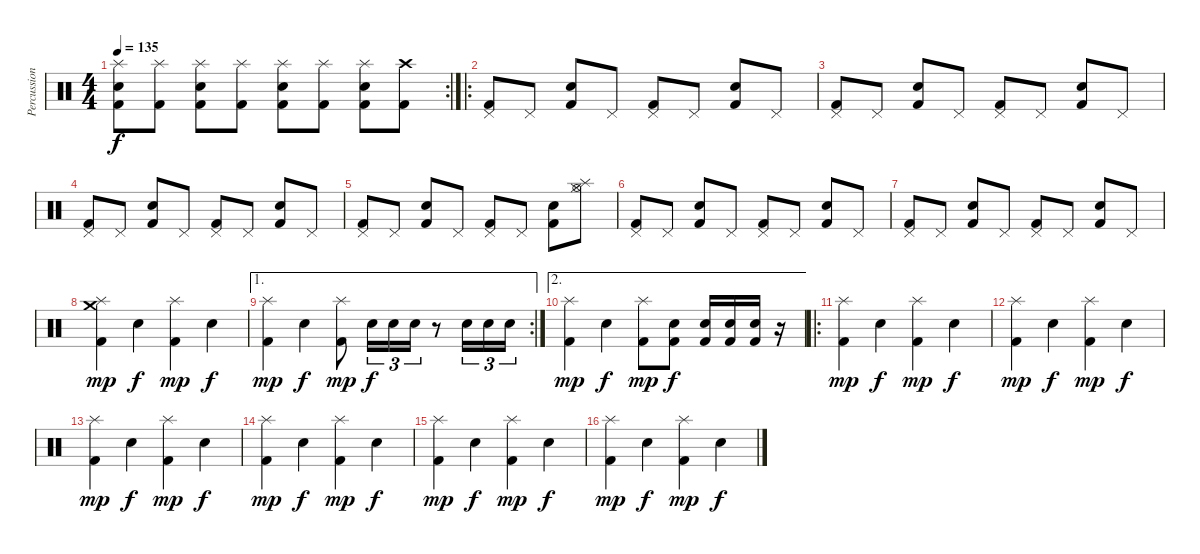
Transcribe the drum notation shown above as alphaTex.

\track ("Percussion" "Percussion") {instrument percussion}
\staff {score}
\articulation defaults
\rc 2
\ts (4 4)
\tempo 135
\clef neutral
\ks c
("Splash (hit)" "Snare (hit) 2" "Kick (hit) 2").8{dy f} ("Splash (hit)" "Kick (hit) 2").8 ("Splash (hit)" "Snare (hit) 2" "Kick (hit) 2").8 ("Splash (hit)" "Kick (hit) 2").8 ("Splash (hit)" "Snare (hit) 2" "Kick (hit) 2").8 ("Splash (hit)" "Kick (hit) 2").8 ("Splash (hit)" "Snare (hit) 2" "Kick (hit) 2").8 ("Crash high (hit)" "Kick (hit) 2").8 |
\ro
("Pedal Hi-Hat (hit)" "Kick (hit) 2").8 "Pedal Hi-Hat (hit)".8 ("Snare (hit) 2" "Kick (hit) 2").8 "Pedal Hi-Hat (hit)".8 ("Pedal Hi-Hat (hit)" "Kick (hit) 2").8 "Pedal Hi-Hat (hit)".8 ("Snare (hit) 2" "Kick (hit) 2").8 "Pedal Hi-Hat (hit)".8 |
("Pedal Hi-Hat (hit)" "Kick (hit) 2").8 "Pedal Hi-Hat (hit)".8 ("Snare (hit) 2" "Kick (hit) 2").8 "Pedal Hi-Hat (hit)".8 ("Pedal Hi-Hat (hit)" "Kick (hit) 2").8 "Pedal Hi-Hat (hit)".8 ("Snare (hit) 2" "Kick (hit) 2").8 "Pedal Hi-Hat (hit)".8 |
("Pedal Hi-Hat (hit)" "Kick (hit) 2").8 "Pedal Hi-Hat (hit)".8 ("Snare (hit) 2" "Kick (hit) 2").8 "Pedal Hi-Hat (hit)".8 ("Pedal Hi-Hat (hit)" "Kick (hit) 2").8 "Pedal Hi-Hat (hit)".8 ("Snare (hit) 2" "Kick (hit) 2").8 "Pedal Hi-Hat (hit)".8 |
("Pedal Hi-Hat (hit)" "Kick (hit) 2").8 "Pedal Hi-Hat (hit)".8 ("Snare (hit) 2" "Kick (hit) 2").8 "Pedal Hi-Hat (hit)".8 ("Pedal Hi-Hat (hit)" "Kick (hit) 2").8 "Pedal Hi-Hat (hit)".8 ("Snare (hit) 2" "Kick (hit) 2").8 ("Hi-Hat (open)" "Hi-Hat (closed)" "Splash (hit)").8 |
("Pedal Hi-Hat (hit)" "Kick (hit) 2").8 "Pedal Hi-Hat (hit)".8 ("Snare (hit) 2" "Kick (hit) 2").8 "Pedal Hi-Hat (hit)".8 ("Pedal Hi-Hat (hit)" "Kick (hit) 2").8 "Pedal Hi-Hat (hit)".8 ("Snare (hit) 2" "Kick (hit) 2").8 "Pedal Hi-Hat (hit)".8 |
("Pedal Hi-Hat (hit)" "Kick (hit) 2").8 "Pedal Hi-Hat (hit)".8 ("Snare (hit) 2" "Kick (hit) 2").8 "Pedal Hi-Hat (hit)".8 ("Pedal Hi-Hat (hit)" "Kick (hit) 2").8 "Pedal Hi-Hat (hit)".8 ("Snare (hit) 2" "Kick (hit) 2").8 "Pedal Hi-Hat (hit)".8 |
("Splash (hit)" "Crash medium (hit)" "Kick (hit) 2").4{dy mp} "Snare (hit) 2".4{dy f} ("Splash (hit)" "Kick (hit) 2").4{dy mp} "Snare (hit) 2".4{dy f} |
\ae 1
\rc 2
("Splash (hit)" "Kick (hit) 2").4{dy mp} "Snare (hit) 2".4{dy f} ("Splash (hit)" "Kick (hit) 2").8{dy mp} "Snare (hit) 2".16{tu (3 2) dy f} "Snare (hit) 2".16{tu (3 2)} "Snare (hit) 2".16{tu (3 2)} r.8 "Snare (hit) 2".16{tu (3 2)} "Snare (hit) 2".16{tu (3 2)} "Snare (hit) 2".16{tu (3 2)} |
\ae 2
("Splash (hit)" "Kick (hit) 2").4{dy mp} "Snare (hit) 2".4{dy f} ("Splash (hit)" "Kick (hit) 2").8{dy mp} ("Snare (hit) 2" "Kick (hit) 2").8{dy f} ("Snare (hit) 2" "Kick (hit) 2").16 ("Snare (hit) 2" "Kick (hit) 2").16 ("Snare (hit) 2" "Kick (hit) 2").16 r.16 |
\ro
("Splash (hit)" "Kick (hit) 2").4{dy mp} "Snare (hit) 2".4{dy f} ("Splash (hit)" "Kick (hit) 2").4{dy mp} "Snare (hit) 2".4{dy f} |
("Splash (hit)" "Kick (hit) 2").4{dy mp} "Snare (hit) 2".4{dy f} ("Splash (hit)" "Kick (hit) 2").4{dy mp} "Snare (hit) 2".4{dy f} |
("Splash (hit)" "Kick (hit) 2").4{dy mp} "Snare (hit) 2".4{dy f} ("Splash (hit)" "Kick (hit) 2").4{dy mp} "Snare (hit) 2".4{dy f} |
("Splash (hit)" "Kick (hit) 2").4{dy mp} "Snare (hit) 2".4{dy f} ("Splash (hit)" "Kick (hit) 2").4{dy mp} "Snare (hit) 2".4{dy f} |
("Splash (hit)" "Kick (hit) 2").4{dy mp} "Snare (hit) 2".4{dy f} ("Splash (hit)" "Kick (hit) 2").4{dy mp} "Snare (hit) 2".4{dy f} |
("Splash (hit)" "Kick (hit) 2").4{dy mp} "Snare (hit) 2".4{dy f} ("Splash (hit)" "Kick (hit) 2").4{dy mp} "Snare (hit) 2".4{dy f}
